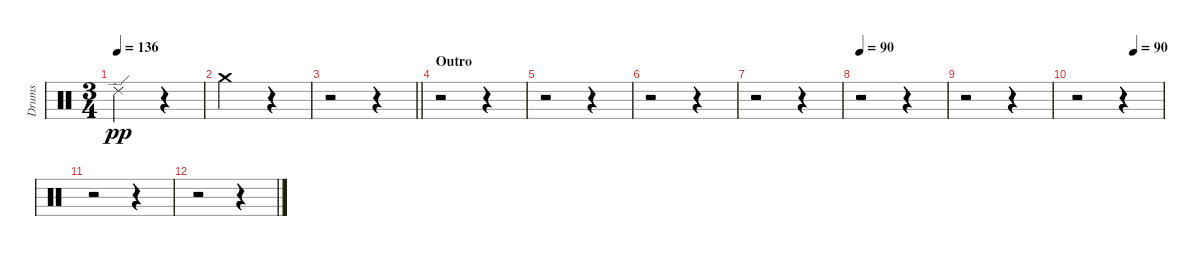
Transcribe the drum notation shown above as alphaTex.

\track ("Drums" "Drums") {instrument percussion}
\staff {score}
\articulation defaults
\ts (3 4)
\tempo 136
\clef neutral
\ks c "Ride (edge) 2".2{dy pp}
r.4 |
"Crash medium (hit)".2 r.4 |
\barLineRight lightlight
r.2 r.4 |
\section ("" "Outro")
r.2 r.4 |
r.2 r.4 |
r.2 r.4 |
r.2 r.4 |
\tempo 80
\tempo 90
r.2 r.4 |
r.2 r.4 |
\tempo (90 0.6666666666666666)
r.2 r.4 |
r.2 r.4 |
r.2 r.4
